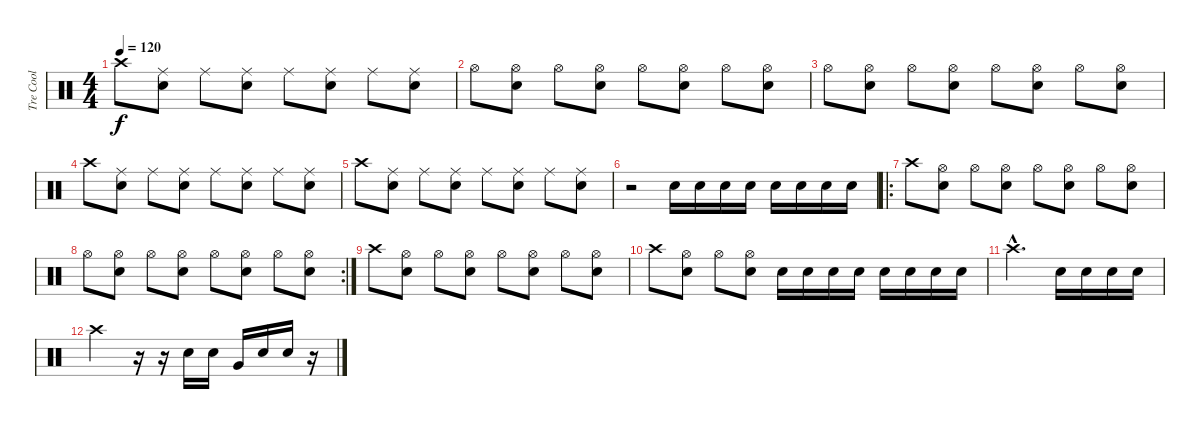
\track ("Tre Cool" "Tre Cool") {instrument percussion}
\staff {score}
\articulation defaults
\ts (4 4)
\tempo 120
\clef neutral
\ks c "Crash high (hit)".8{dy f}
("Electric Snare (hit)" "Ride (middle)").8 "Ride (middle)".8 ("Electric Snare (hit)" "Ride (middle)").8 "Ride (middle)".8 ("Electric Snare (hit)" "Ride (middle)").8 "Ride (middle)".8 ("Electric Snare (hit)" "Ride (middle)").8 |
"Hi-Hat (open)".8 ("Electric Snare (hit)" "Hi-Hat (open)").8 "Hi-Hat (open)".8 ("Electric Snare (hit)" "Hi-Hat (open)").8 "Hi-Hat (open)".8 ("Electric Snare (hit)" "Hi-Hat (open)").8 "Hi-Hat (open)".8 ("Electric Snare (hit)" "Hi-Hat (open)").8 |
"Hi-Hat (open)".8 ("Electric Snare (hit)" "Hi-Hat (open)").8 "Hi-Hat (open)".8 ("Electric Snare (hit)" "Hi-Hat (open)").8 "Hi-Hat (open)".8 ("Electric Snare (hit)" "Hi-Hat (open)").8 "Hi-Hat (open)".8 ("Electric Snare (hit)" "Hi-Hat (open)").8 |
"Crash high (hit)".8 ("Electric Snare (hit)" "Ride (middle)").8 "Ride (middle)".8 ("Electric Snare (hit)" "Ride (middle)").8 "Ride (middle)".8 ("Electric Snare (hit)" "Ride (middle)").8 "Ride (middle)".8 ("Electric Snare (hit)" "Ride (middle)").8 |
"Crash high (hit)".8 ("Electric Snare (hit)" "Ride (middle)").8 "Ride (middle)".8 ("Electric Snare (hit)" "Ride (middle)").8 "Ride (middle)".8 ("Electric Snare (hit)" "Ride (middle)").8 "Ride (middle)".8 ("Electric Snare (hit)" "Ride (middle)").8 |
r.2 "Electric Snare (hit)".16 "Electric Snare (hit)".16 "Electric Snare (hit)".16 "Electric Snare (hit)".16 "Electric Snare (hit)".16 "Electric Snare (hit)".16 "Electric Snare (hit)".16 "Electric Snare (hit)".16 |
\ro "Crash high (hit)".8
("Electric Snare (hit)" "Hi-Hat (open)").8 "Hi-Hat (open)".8 ("Electric Snare (hit)" "Hi-Hat (open)").8 "Hi-Hat (open)".8 ("Electric Snare (hit)" "Hi-Hat (open)").8 "Hi-Hat (open)".8 ("Electric Snare (hit)" "Hi-Hat (open)").8 |
\rc 2 "Hi-Hat (open)".8
("Electric Snare (hit)" "Hi-Hat (open)").8 "Hi-Hat (open)".8 ("Electric Snare (hit)" "Hi-Hat (open)").8 "Hi-Hat (open)".8 ("Electric Snare (hit)" "Hi-Hat (open)").8 "Hi-Hat (open)".8 ("Electric Snare (hit)" "Hi-Hat (open)").8 |
"Crash high (hit)".8 ("Electric Snare (hit)" "Hi-Hat (open)").8 "Hi-Hat (open)".8 ("Electric Snare (hit)" "Hi-Hat (open)").8 "Hi-Hat (open)".8 ("Electric Snare (hit)" "Hi-Hat (open)").8 "Hi-Hat (open)".8 ("Electric Snare (hit)" "Hi-Hat (open)").8 |
"Crash high (hit)".8 ("Electric Snare (hit)" "Hi-Hat (open)").8 "Hi-Hat (open)".8 ("Electric Snare (hit)" "Hi-Hat (open)").8 "Electric Snare (hit)".16 "Electric Snare (hit)".16 "Electric Snare (hit)".16 "Electric Snare (hit)".16 "Electric Snare (hit)".16 "Electric Snare (hit)".16 "Electric Snare (hit)".16 "Electric Snare (hit)".16 |
"Crash high (hit)"{hac}.2{d} "Electric Snare (hit)".16 "Electric Snare (hit)".16 "Electric Snare (hit)".16 "Electric Snare (hit)".16 |
"Crash high (hit)".2 r.16 r.16 "Electric Snare (hit)".16 "Electric Snare (hit)".16 "Very Low Tom (hit)".16 "Electric Snare (hit)".16 "Electric Snare (hit)".16 r.16
